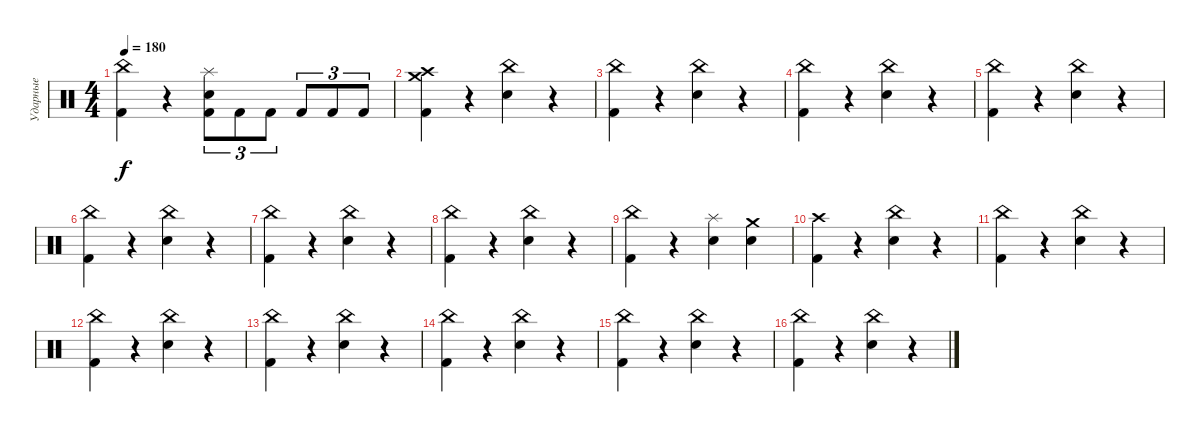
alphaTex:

\track ("Ударные" "Ударные") {instrument percussion}
\staff {score}
\articulation defaults
\ts (4 4)
\tempo 180
\clef neutral
\ks c
("Kick (hit) 2" "China (hit)").4{dy f} r.4 ("Kick (hit) 2" "Electric Snare (hit)" "Splash (hit)").8{tu (3 2)} "Kick (hit) 2".8{tu (3 2)} "Kick (hit) 2".8{tu (3 2)} "Kick (hit) 2".8{tu (3 2)} "Kick (hit) 2".8{tu (3 2)} "Kick (hit) 2".8{tu (3 2)} |
("Kick (hit) 2" "Crash high (hit)" "Crash medium (hit)").4 r.4 ("Electric Snare (hit)" "China (hit)").4 r.4 |
("Kick (hit) 2" "China (hit)").4 r.4 ("Electric Snare (hit)" "China (hit)").4 r.4 |
("Kick (hit) 2" "China (hit)").4 r.4 ("Electric Snare (hit)" "China (hit)").4 r.4 |
("Kick (hit) 2" "China (hit)").4 r.4 ("Electric Snare (hit)" "China (hit)").4 r.4 |
("Kick (hit) 2" "China (hit)").4 r.4 ("Electric Snare (hit)" "China (hit)").4 r.4 |
("Kick (hit) 2" "China (hit)").4 r.4 ("Electric Snare (hit)" "China (hit)").4 r.4 |
("Kick (hit) 2" "China (hit)").4 r.4 ("Electric Snare (hit)" "China (hit)").4 r.4 |
("Kick (hit) 2" "China (hit)").4 r.4 ("Electric Snare (hit)" "Splash (hit)").4 ("Electric Snare (hit)" "Crash medium (hit)").4 |
("Kick (hit) 2" "Crash high (hit)").4 r.4 ("Electric Snare (hit)" "China (hit)").4 r.4 |
("Kick (hit) 2" "China (hit)").4 r.4 ("Electric Snare (hit)" "China (hit)").4 r.4 |
("Kick (hit) 2" "China (hit)").4 r.4 ("Electric Snare (hit)" "China (hit)").4 r.4 |
("Kick (hit) 2" "China (hit)").4 r.4 ("Electric Snare (hit)" "China (hit)").4 r.4 |
("Kick (hit) 2" "China (hit)").4 r.4 ("Electric Snare (hit)" "China (hit)").4 r.4 |
("Kick (hit) 2" "China (hit)").4 r.4 ("Electric Snare (hit)" "China (hit)").4 r.4 |
("Kick (hit) 2" "China (hit)").4 r.4 ("Electric Snare (hit)" "China (hit)").4 r.4
